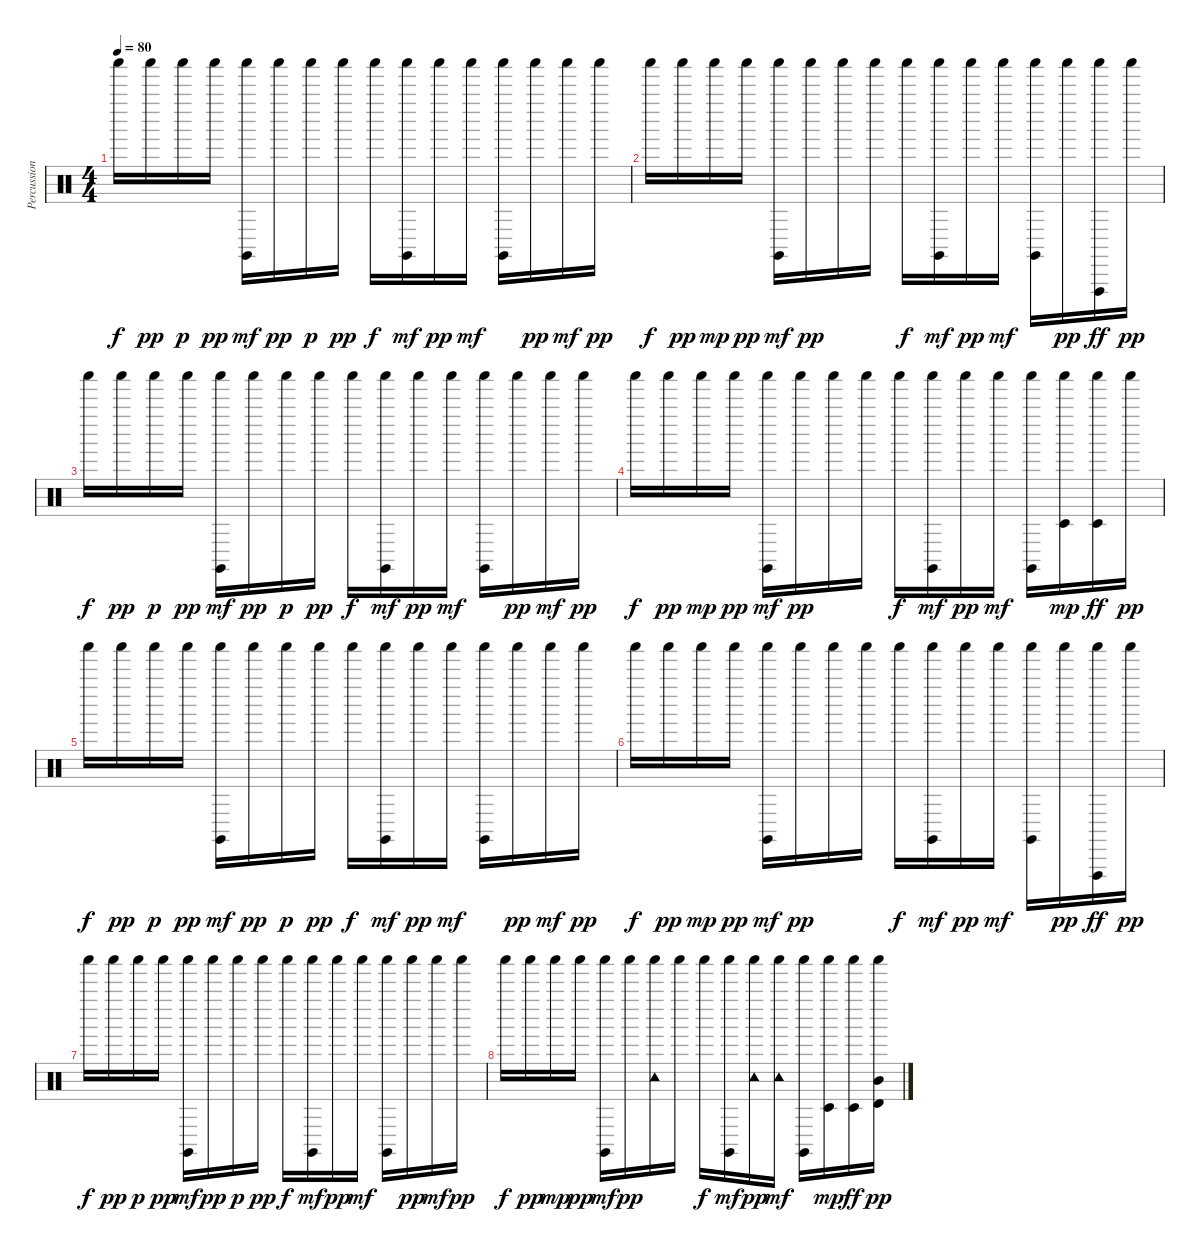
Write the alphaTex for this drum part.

\track ("Percussion" "Percussion") {instrument percussion}
\staff {score}
\articulation defaults
\ts (4 4)
\tempo 80
\clef neutral
\ks c "Shaker (hit)".16{dy f} "Shaker (hit)".16{dy pp} "Shaker (hit)".16{dy p} "Shaker (hit)".16{dy pp}
("Shaker (hit)" "Claves (hit)").16{dy mf} "Shaker (hit)".16{dy pp} "Shaker (hit)".16{dy p} "Shaker (hit)".16{dy pp} "Shaker (hit)".16{dy f} ("Shaker (hit)" "Claves (hit)").16{dy mf} "Shaker (hit)".16{dy pp} "Shaker (hit)".16{dy mf} ("Shaker (hit)" "Claves (hit)").16 "Shaker (hit)".16{dy pp} "Shaker (hit)".16{dy mf} "Shaker (hit)".16{dy pp} |
"Shaker (hit)".16{dy f} "Shaker (hit)".16{dy pp} "Shaker (hit)".16{dy mp} "Shaker (hit)".16{dy pp} ("Shaker (hit)" "Claves (hit)").16{dy mf} "Shaker (hit)".16{dy pp} "Shaker (hit)".16 "Shaker (hit)".16 "Shaker (hit)".16{dy f} ("Shaker (hit)" "Claves (hit)").16{dy mf} "Shaker (hit)".16{dy pp} "Shaker (hit)".16{dy mf} ("Shaker (hit)" "Claves (hit)").16 "Shaker (hit)".16{dy pp} ("Shaker (hit)" "Vibraslap (hit)").16{dy ff} "Shaker (hit)".16{dy pp} |
"Shaker (hit)".16{dy f} "Shaker (hit)".16{dy pp} "Shaker (hit)".16{dy p} "Shaker (hit)".16{dy pp} ("Shaker (hit)" "Claves (hit)").16{dy mf} "Shaker (hit)".16{dy pp} "Shaker (hit)".16{dy p} "Shaker (hit)".16{dy pp} "Shaker (hit)".16{dy f} ("Shaker (hit)" "Claves (hit)").16{dy mf} "Shaker (hit)".16{dy pp} "Shaker (hit)".16{dy mf} ("Shaker (hit)" "Claves (hit)").16 "Shaker (hit)".16{dy pp} "Shaker (hit)".16{dy mf} "Shaker (hit)".16{dy pp} |
"Shaker (hit)".16{dy f} "Shaker (hit)".16{dy pp} "Shaker (hit)".16{dy mp} "Shaker (hit)".16{dy pp} ("Shaker (hit)" "Claves (hit)").16{dy mf} "Shaker (hit)".16{dy pp} "Shaker (hit)".16 "Shaker (hit)".16 "Shaker (hit)".16{dy f} ("Shaker (hit)" "Claves (hit)").16{dy mf} "Shaker (hit)".16{dy pp} "Shaker (hit)".16{dy mf} ("Shaker (hit)" "Claves (hit)").16 ("Shaker (hit)" "Timbale low (hit)").16{dy mp} ("Shaker (hit)" "Timbale low (hit)").16{dy ff} "Shaker (hit)".16{dy pp} |
"Shaker (hit)".16{dy f} "Shaker (hit)".16{dy pp} "Shaker (hit)".16{dy p} "Shaker (hit)".16{dy pp} ("Shaker (hit)" "Claves (hit)").16{dy mf} "Shaker (hit)".16{dy pp} "Shaker (hit)".16{dy p} "Shaker (hit)".16{dy pp} "Shaker (hit)".16{dy f} ("Shaker (hit)" "Claves (hit)").16{dy mf} "Shaker (hit)".16{dy pp} "Shaker (hit)".16{dy mf} ("Shaker (hit)" "Claves (hit)").16 "Shaker (hit)".16{dy pp} "Shaker (hit)".16{dy mf} "Shaker (hit)".16{dy pp} |
"Shaker (hit)".16{dy f} "Shaker (hit)".16{dy pp} "Shaker (hit)".16{dy mp} "Shaker (hit)".16{dy pp} ("Shaker (hit)" "Claves (hit)").16{dy mf} "Shaker (hit)".16{dy pp} "Shaker (hit)".16 "Shaker (hit)".16 "Shaker (hit)".16{dy f} ("Shaker (hit)" "Claves (hit)").16{dy mf} "Shaker (hit)".16{dy pp} "Shaker (hit)".16{dy mf} ("Shaker (hit)" "Claves (hit)").16 "Shaker (hit)".16{dy pp} ("Shaker (hit)" "Vibraslap (hit)").16{dy ff} "Shaker (hit)".16{dy pp} |
"Shaker (hit)".16{dy f} "Shaker (hit)".16{dy pp} "Shaker (hit)".16{dy p} "Shaker (hit)".16{dy pp} ("Shaker (hit)" "Claves (hit)").16{dy mf} "Shaker (hit)".16{dy pp} "Shaker (hit)".16{dy p} "Shaker (hit)".16{dy pp} "Shaker (hit)".16{dy f} ("Shaker (hit)" "Claves (hit)").16{dy mf} "Shaker (hit)".16{dy pp} "Shaker (hit)".16{dy mf} ("Shaker (hit)" "Claves (hit)").16 "Shaker (hit)".16{dy pp} "Shaker (hit)".16{dy mf} "Shaker (hit)".16{dy pp} |
"Shaker (hit)".16{dy f} "Shaker (hit)".16{dy pp} "Shaker (hit)".16{dy mp} "Shaker (hit)".16{dy pp} ("Shaker (hit)" "Claves (hit)").16{dy mf} "Shaker (hit)".16{dy pp} ("Shaker (hit)" "Tambourine (hit)").16 "Shaker (hit)".16 "Shaker (hit)".16{dy f} ("Shaker (hit)" "Claves (hit)").16{dy mf} ("Shaker (hit)" "Tambourine (hit)").16{dy pp} ("Shaker (hit)" "Tambourine (hit)").16{dy mf} ("Shaker (hit)" "Claves (hit)").16 ("Shaker (hit)" "Timbale low (hit)").16{dy mp} ("Shaker (hit)" "Timbale low (hit)").16{dy ff} ("Shaker (hit)" "Timbale high (hit)" "Mid Tom (hit)").16{dy pp}
